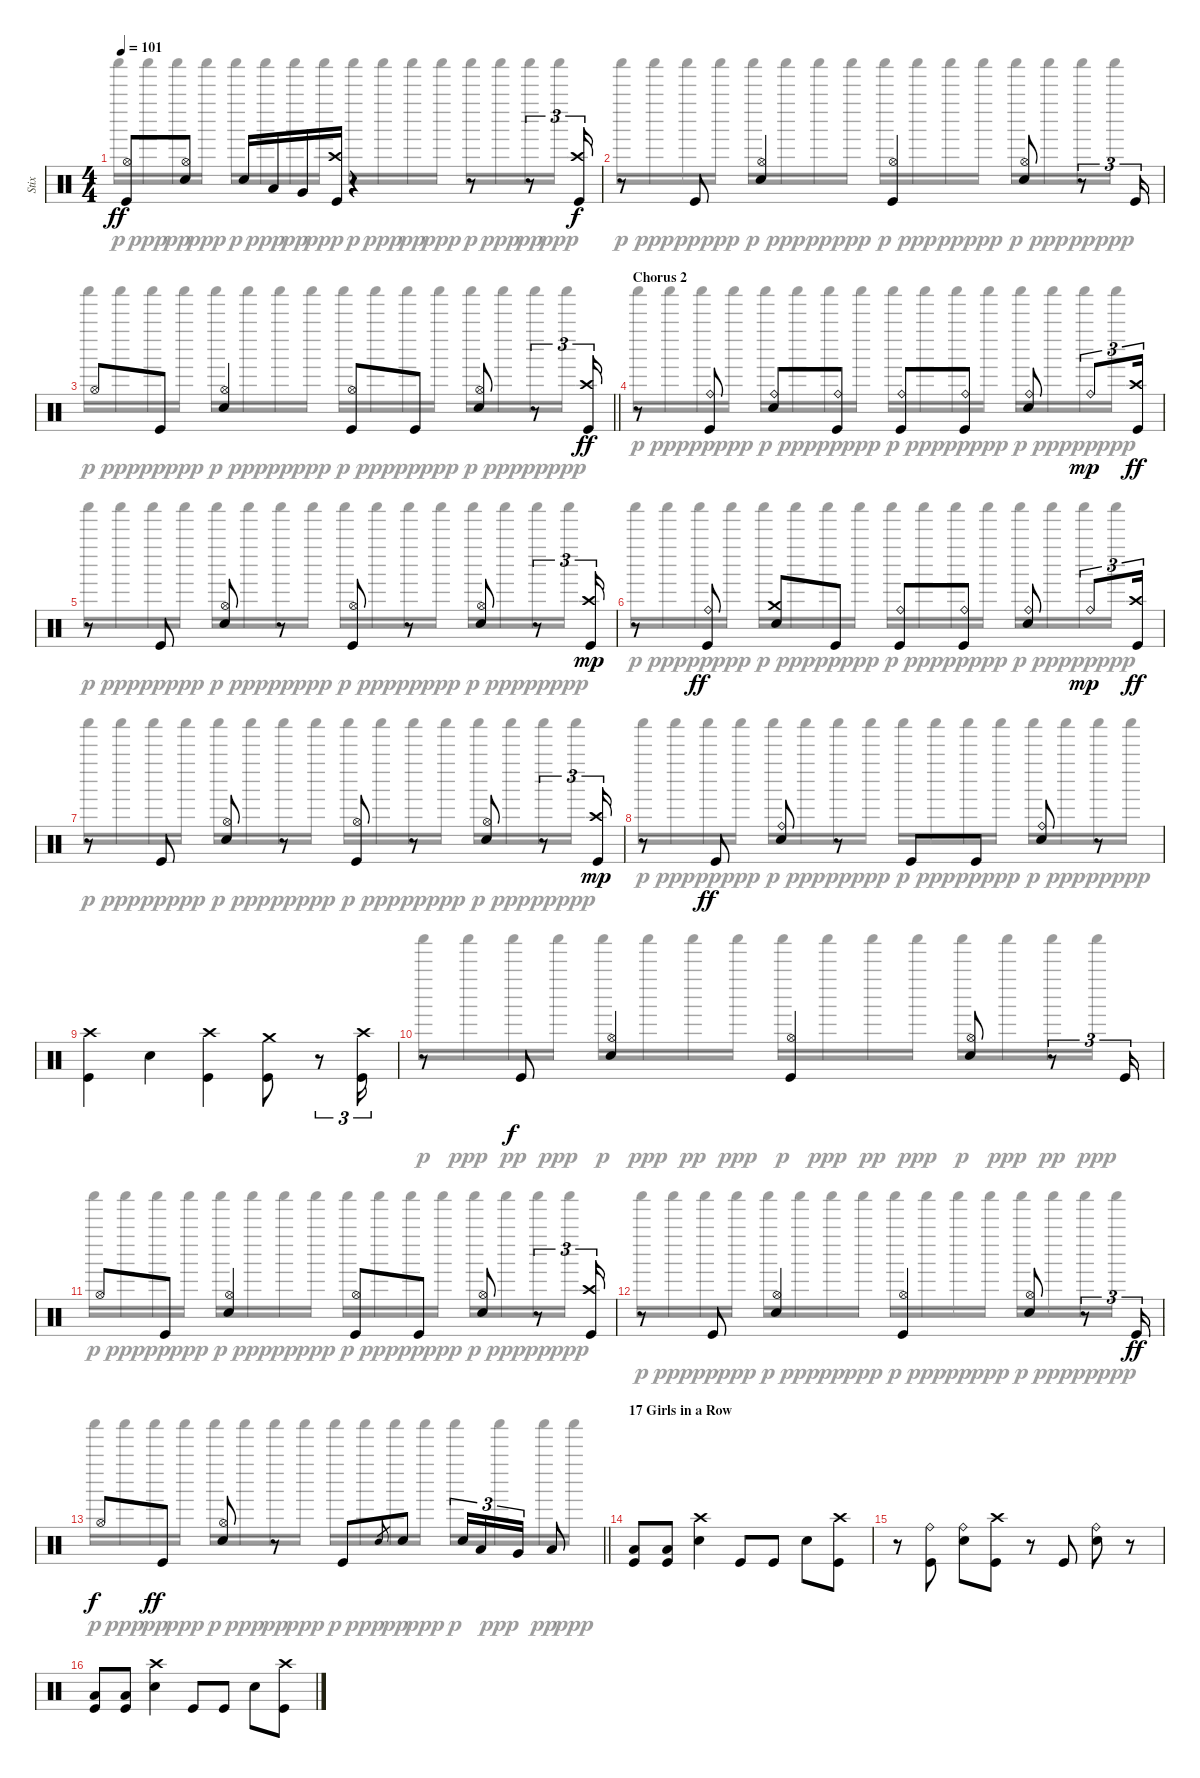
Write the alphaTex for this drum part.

\track ("Stix" "Stix") {instrument percussion}
\staff {score}
\articulation defaults
\voice
\ts (4 4)
\tempo 101
\clef neutral
\ks c
("Hi-Hat (open)" "Kick (hit)").8{dy ff} ("Hi-Hat (open)" "Electric Snare (hit)").8 "Electric Snare (hit)".16 "Low Tom (hit)".16 "Very Low Tom (hit)".16 ("Crash high (hit)" "Kick (hit)").16 r.4 r.8 r.8{tu (3 2)} ("Crash high (hit)" "Kick (hit)").16{tu (3 2) dy f} |
r.8 "Kick (hit)".8 ("Hi-Hat (open)" "Electric Snare (hit)").4 ("Hi-Hat (open)" "Kick (hit)").4 ("Hi-Hat (open)" "Electric Snare (hit)").8 r.8{tu (3 2)} "Kick (hit)".16{tu (3 2)} |
\barLineRight lightlight "Hi-Hat (open)".8 "Kick (hit)".8
("Hi-Hat (open)" "Electric Snare (hit)").4 ("Hi-Hat (open)" "Kick (hit)").8 "Kick (hit)".8 ("Hi-Hat (open)" "Electric Snare (hit)").8 r.8{tu (3 2)} ("Crash high (hit)" "Kick (hit)").16{tu (3 2) dy ff} |
\section ("" "Chorus 2")
r.8 ("Ride (bell)" "Kick (hit)").8 ("Ride (bell)" "Electric Snare (hit)").8 ("Ride (bell)" "Kick (hit)").8 ("Ride (bell)" "Kick (hit)").8 ("Ride (bell)" "Kick (hit)").8 ("Ride (bell)" "Electric Snare (hit)").8 "Ride (bell)".8{tu (3 2) dy mp} ("Crash high (hit)" "Kick (hit)").16{tu (3 2) dy ff} |
r.8 "Kick (hit)".8 ("Hi-Hat (open)" "Electric Snare (hit)").8 r.8 ("Hi-Hat (open)" "Kick (hit)").8 r.8 ("Hi-Hat (open)" "Electric Snare (hit)").8 r.8{tu (3 2)} ("Crash high (hit)" "Kick (hit)").16{tu (3 2) dy mp} |
r.8 ("Ride (bell)" "Kick (hit)").8{dy ff} ("Crash medium (hit)" "Electric Snare (hit)").8 "Kick (hit)".8 ("Ride (bell)" "Kick (hit)").8 ("Ride (bell)" "Kick (hit)").8 ("Ride (bell)" "Electric Snare (hit)").8 "Ride (bell)".8{tu (3 2) dy mp} ("Crash high (hit)" "Kick (hit)").16{tu (3 2) dy ff} |
r.8 "Kick (hit)".8 ("Hi-Hat (open)" "Electric Snare (hit)").8 r.8 ("Hi-Hat (open)" "Kick (hit)").8 r.8 ("Hi-Hat (open)" "Electric Snare (hit)").8 r.8{tu (3 2)} ("Crash high (hit)" "Kick (hit)").16{tu (3 2) dy mp} |
r.8 "Kick (hit)".8{dy ff} ("Ride (bell)" "Electric Snare (hit)").8 r.8 "Kick (hit)".8 "Kick (hit)".8 ("Ride (bell)" "Electric Snare (hit)").8 r.8 |
("Crash high (hit)" "Kick (hit)").4 "Electric Snare (hit)".4 ("Crash high (hit)" "Kick (hit)").4 ("Crash medium (hit)" "Kick (hit)").8 r.8{tu (3 2)} ("Crash high (hit)" "Kick (hit)").16{tu (3 2)} |
r.8 "Kick (hit)".8{dy f} ("Hi-Hat (open)" "Electric Snare (hit)").4 ("Hi-Hat (open)" "Kick (hit)").4 ("Hi-Hat (open)" "Electric Snare (hit)").8 r.8{tu (3 2)} "Kick (hit)".16{tu (3 2)} |
"Hi-Hat (open)".8 "Kick (hit)".8 ("Hi-Hat (open)" "Electric Snare (hit)").4 ("Hi-Hat (open)" "Kick (hit)").8 "Kick (hit)".8 ("Hi-Hat (open)" "Electric Snare (hit)").8 r.8{tu (3 2)} ("Crash high (hit)" "Kick (hit)").16{tu (3 2)} |
r.8 "Kick (hit)".8 ("Hi-Hat (open)" "Electric Snare (hit)").4 ("Hi-Hat (open)" "Kick (hit)").4 ("Hi-Hat (open)" "Electric Snare (hit)").8 r.8{tu (3 2)} "Kick (hit)".16{tu (3 2) dy ff} |
\barLineRight lightlight "Hi-Hat (open)".8{dy f} "Kick (hit)".8{dy ff}
("Hi-Hat (open)" "Electric Snare (hit)").8 r.8 "Kick (hit)".8 "Electric Snare (hit)".8{gr} "Electric Snare (hit)".8 "Electric Snare (hit)".16{tu (3 2)} "Low Tom (hit)".16{tu (3 2)} "Very Low Tom (hit)".16{tu (3 2)} "Low Floor Tom (hit)".8 |
\section ("" "17 Girls in a Row")
("Low Floor Tom (hit)" "Kick (hit)").8 ("Low Floor Tom (hit)" "Kick (hit)").8 ("Crash high (hit)" "Electric Snare (hit)").4 "Kick (hit)".8 "Kick (hit)".8 "Electric Snare (hit)".8 ("Crash high (hit)" "Kick (hit)").8 |
r.8 ("Ride (bell)" "Kick (hit)").8 ("Ride (bell)" "Electric Snare (hit)").8 ("Crash high (hit)" "Kick (hit)").8 r.8 "Kick (hit)".8 ("Ride (bell)" "Electric Snare (hit)").8 r.8 |
("Low Floor Tom (hit)" "Kick (hit)").8 ("Low Floor Tom (hit)" "Kick (hit)").8 ("Crash high (hit)" "Electric Snare (hit)").4 "Kick (hit)".8 "Kick (hit)".8 "Electric Snare (hit)".8 ("Crash high (hit)" "Kick (hit)").8
\voice
\clef neutral
\ottava regular
\simile none
\ks c "Shaker (hit)".16{dy p} "Shaker (hit)".16{dy ppp} "Shaker (hit)".16{dy pp} "Shaker (hit)".16{dy ppp} "Shaker (hit)".16{dy p} "Shaker (hit)".16{dy ppp} "Shaker (hit)".16{dy pp} "Shaker (hit)".16{dy ppp} "Shaker (hit)".16{dy p} "Shaker (hit)".16{dy ppp} "Shaker (hit)".16{dy pp} "Shaker (hit)".16{dy ppp} "Shaker (hit)".16{dy p} "Shaker (hit)".16{dy ppp} "Shaker (hit)".16{dy pp} "Shaker (hit)".16{dy ppp}
|
"Shaker (hit)".16{dy p} "Shaker (hit)".16{dy ppp} "Shaker (hit)".16{dy pp} "Shaker (hit)".16{dy ppp} "Shaker (hit)".16{dy p} "Shaker (hit)".16{dy ppp} "Shaker (hit)".16{dy pp} "Shaker (hit)".16{dy ppp} "Shaker (hit)".16{dy p} "Shaker (hit)".16{dy ppp} "Shaker (hit)".16{dy pp} "Shaker (hit)".16{dy ppp} "Shaker (hit)".16{dy p} "Shaker (hit)".16{dy ppp} "Shaker (hit)".16{dy pp} "Shaker (hit)".16{dy ppp} |
\barLineRight lightlight "Shaker (hit)".16{dy p} "Shaker (hit)".16{dy ppp} "Shaker (hit)".16{dy pp} "Shaker (hit)".16{dy ppp} "Shaker (hit)".16{dy p} "Shaker (hit)".16{dy ppp} "Shaker (hit)".16{dy pp} "Shaker (hit)".16{dy ppp} "Shaker (hit)".16{dy p} "Shaker (hit)".16{dy ppp} "Shaker (hit)".16{dy pp} "Shaker (hit)".16{dy ppp} "Shaker (hit)".16{dy p} "Shaker (hit)".16{dy ppp} "Shaker (hit)".16{dy pp} "Shaker (hit)".16{dy ppp}
|
"Shaker (hit)".16{dy p} "Shaker (hit)".16{dy ppp} "Shaker (hit)".16{dy pp} "Shaker (hit)".16{dy ppp} "Shaker (hit)".16{dy p} "Shaker (hit)".16{dy ppp} "Shaker (hit)".16{dy pp} "Shaker (hit)".16{dy ppp} "Shaker (hit)".16{dy p} "Shaker (hit)".16{dy ppp} "Shaker (hit)".16{dy pp} "Shaker (hit)".16{dy ppp} "Shaker (hit)".16{dy p} "Shaker (hit)".16{dy ppp} "Shaker (hit)".16{dy pp} "Shaker (hit)".16{dy ppp} |
"Shaker (hit)".16{dy p} "Shaker (hit)".16{dy ppp} "Shaker (hit)".16{dy pp} "Shaker (hit)".16{dy ppp} "Shaker (hit)".16{dy p} "Shaker (hit)".16{dy ppp} "Shaker (hit)".16{dy pp} "Shaker (hit)".16{dy ppp} "Shaker (hit)".16{dy p} "Shaker (hit)".16{dy ppp} "Shaker (hit)".16{dy pp} "Shaker (hit)".16{dy ppp} "Shaker (hit)".16{dy p} "Shaker (hit)".16{dy ppp} "Shaker (hit)".16{dy pp} "Shaker (hit)".16{dy ppp} |
"Shaker (hit)".16{dy p} "Shaker (hit)".16{dy ppp} "Shaker (hit)".16{dy pp} "Shaker (hit)".16{dy ppp} "Shaker (hit)".16{dy p} "Shaker (hit)".16{dy ppp} "Shaker (hit)".16{dy pp} "Shaker (hit)".16{dy ppp} "Shaker (hit)".16{dy p} "Shaker (hit)".16{dy ppp} "Shaker (hit)".16{dy pp} "Shaker (hit)".16{dy ppp} "Shaker (hit)".16{dy p} "Shaker (hit)".16{dy ppp} "Shaker (hit)".16{dy pp} "Shaker (hit)".16{dy ppp} |
"Shaker (hit)".16{dy p} "Shaker (hit)".16{dy ppp} "Shaker (hit)".16{dy pp} "Shaker (hit)".16{dy ppp} "Shaker (hit)".16{dy p} "Shaker (hit)".16{dy ppp} "Shaker (hit)".16{dy pp} "Shaker (hit)".16{dy ppp} "Shaker (hit)".16{dy p} "Shaker (hit)".16{dy ppp} "Shaker (hit)".16{dy pp} "Shaker (hit)".16{dy ppp} "Shaker (hit)".16{dy p} "Shaker (hit)".16{dy ppp} "Shaker (hit)".16{dy pp} "Shaker (hit)".16{dy ppp} |
"Shaker (hit)".16{dy p} "Shaker (hit)".16{dy ppp} "Shaker (hit)".16{dy pp} "Shaker (hit)".16{dy ppp} "Shaker (hit)".16{dy p} "Shaker (hit)".16{dy ppp} "Shaker (hit)".16{dy pp} "Shaker (hit)".16{dy ppp} "Shaker (hit)".16{dy p} "Shaker (hit)".16{dy ppp} "Shaker (hit)".16{dy pp} "Shaker (hit)".16{dy ppp} "Shaker (hit)".16{dy p} "Shaker (hit)".16{dy ppp} "Shaker (hit)".16{dy pp} "Shaker (hit)".16{dy ppp} |
|
"Shaker (hit)".16{dy p} "Shaker (hit)".16{dy ppp} "Shaker (hit)".16{dy pp} "Shaker (hit)".16{dy ppp} "Shaker (hit)".16{dy p} "Shaker (hit)".16{dy ppp} "Shaker (hit)".16{dy pp} "Shaker (hit)".16{dy ppp} "Shaker (hit)".16{dy p} "Shaker (hit)".16{dy ppp} "Shaker (hit)".16{dy pp} "Shaker (hit)".16{dy ppp} "Shaker (hit)".16{dy p} "Shaker (hit)".16{dy ppp} "Shaker (hit)".16{dy pp} "Shaker (hit)".16{dy ppp} |
"Shaker (hit)".16{dy p} "Shaker (hit)".16{dy ppp} "Shaker (hit)".16{dy pp} "Shaker (hit)".16{dy ppp} "Shaker (hit)".16{dy p} "Shaker (hit)".16{dy ppp} "Shaker (hit)".16{dy pp} "Shaker (hit)".16{dy ppp} "Shaker (hit)".16{dy p} "Shaker (hit)".16{dy ppp} "Shaker (hit)".16{dy pp} "Shaker (hit)".16{dy ppp} "Shaker (hit)".16{dy p} "Shaker (hit)".16{dy ppp} "Shaker (hit)".16{dy pp} "Shaker (hit)".16{dy ppp} |
"Shaker (hit)".16{dy p} "Shaker (hit)".16{dy ppp} "Shaker (hit)".16{dy pp} "Shaker (hit)".16{dy ppp} "Shaker (hit)".16{dy p} "Shaker (hit)".16{dy ppp} "Shaker (hit)".16{dy pp} "Shaker (hit)".16{dy ppp} "Shaker (hit)".16{dy p} "Shaker (hit)".16{dy ppp} "Shaker (hit)".16{dy pp} "Shaker (hit)".16{dy ppp} "Shaker (hit)".16{dy p} "Shaker (hit)".16{dy ppp} "Shaker (hit)".16{dy pp} "Shaker (hit)".16{dy ppp} |
\barLineRight lightlight "Shaker (hit)".16{dy p} "Shaker (hit)".16{dy ppp} "Shaker (hit)".16{dy pp} "Shaker (hit)".16{dy ppp} "Shaker (hit)".16{dy p} "Shaker (hit)".16{dy ppp} "Shaker (hit)".16{dy pp} "Shaker (hit)".16{dy ppp} "Shaker (hit)".16{dy p} "Shaker (hit)".16{dy ppp} "Shaker (hit)".16{dy pp} "Shaker (hit)".16{dy ppp} "Shaker (hit)".16{dy p} "Shaker (hit)".16{dy ppp} "Shaker (hit)".16{dy pp} "Shaker (hit)".16{dy ppp}
|
|
|
